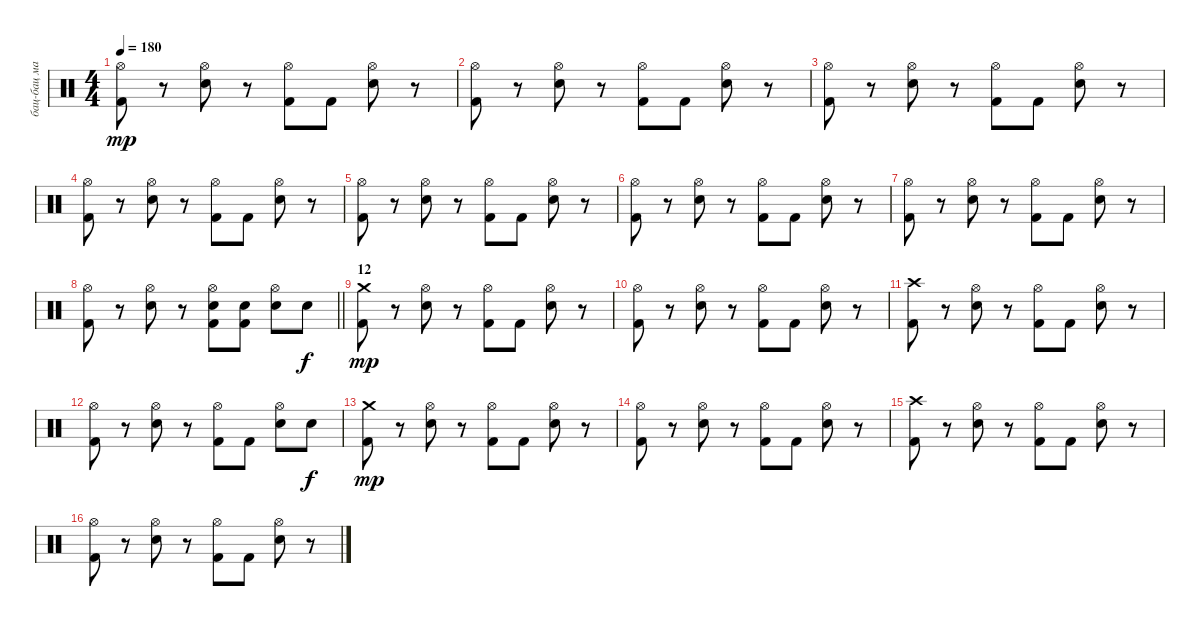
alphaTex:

\track ("бац-бац машина" "бац-бац ма") {instrument percussion}
\staff {score}
\articulation defaults
\ts (4 4)
\tempo 180
\clef neutral
\ks c
("Hi-Hat (open)" "Kick (hit) 2").8{dy mp} r.8 ("Hi-Hat (open)" "Snare (hit) 2").8 r.8 ("Hi-Hat (open)" "Kick (hit) 2").8 "Kick (hit) 2".8 ("Hi-Hat (open)" "Snare (hit) 2").8 r.8 |
("Hi-Hat (open)" "Kick (hit) 2").8 r.8 ("Hi-Hat (open)" "Snare (hit) 2").8 r.8 ("Hi-Hat (open)" "Kick (hit) 2").8 "Kick (hit) 2".8 ("Hi-Hat (open)" "Snare (hit) 2").8 r.8 |
("Hi-Hat (open)" "Kick (hit) 2").8 r.8 ("Hi-Hat (open)" "Snare (hit) 2").8 r.8 ("Hi-Hat (open)" "Kick (hit) 2").8 "Kick (hit) 2".8 ("Hi-Hat (open)" "Snare (hit) 2").8 r.8 |
("Hi-Hat (open)" "Kick (hit) 2").8 r.8 ("Hi-Hat (open)" "Snare (hit) 2").8 r.8 ("Hi-Hat (open)" "Kick (hit) 2").8 "Kick (hit) 2".8 ("Hi-Hat (open)" "Snare (hit) 2").8 r.8 |
("Hi-Hat (open)" "Kick (hit) 2").8 r.8 ("Hi-Hat (open)" "Snare (hit) 2").8 r.8 ("Hi-Hat (open)" "Kick (hit) 2").8 "Kick (hit) 2".8 ("Hi-Hat (open)" "Snare (hit) 2").8 r.8 |
("Hi-Hat (open)" "Kick (hit) 2").8 r.8 ("Hi-Hat (open)" "Snare (hit) 2").8 r.8 ("Hi-Hat (open)" "Kick (hit) 2").8 "Kick (hit) 2".8 ("Hi-Hat (open)" "Snare (hit) 2").8 r.8 |
("Hi-Hat (open)" "Kick (hit) 2").8 r.8 ("Hi-Hat (open)" "Snare (hit) 2").8 r.8 ("Hi-Hat (open)" "Kick (hit) 2").8 "Kick (hit) 2".8 ("Hi-Hat (open)" "Snare (hit) 2").8 r.8 |
\barLineRight lightlight
("Hi-Hat (open)" "Kick (hit) 2").8 r.8 ("Hi-Hat (open)" "Snare (hit) 2").8 r.8 ("Hi-Hat (open)" "Snare (hit) 2" "Kick (hit) 2").8 ("Snare (hit) 2" "Kick (hit) 2").8 ("Hi-Hat (open)" "Snare (hit) 2").8 "Snare (hit) 2".8{dy f} |
\section ("" "12")
("Crash medium (hit)" "Kick (hit) 2").8{dy mp} r.8 ("Hi-Hat (open)" "Snare (hit) 2").8 r.8 ("Hi-Hat (open)" "Kick (hit) 2").8 "Kick (hit) 2".8 ("Hi-Hat (open)" "Snare (hit) 2").8 r.8 |
("Hi-Hat (open)" "Kick (hit) 2").8 r.8 ("Hi-Hat (open)" "Snare (hit) 2").8 r.8 ("Hi-Hat (open)" "Kick (hit) 2").8 "Kick (hit) 2".8 ("Hi-Hat (open)" "Snare (hit) 2").8 r.8 |
("Crash high (hit)" "Kick (hit) 2").8 r.8 ("Hi-Hat (open)" "Snare (hit) 2").8 r.8 ("Hi-Hat (open)" "Kick (hit) 2").8 "Kick (hit) 2".8 ("Hi-Hat (open)" "Snare (hit) 2").8 r.8 |
("Hi-Hat (open)" "Kick (hit) 2").8 r.8 ("Hi-Hat (open)" "Snare (hit) 2").8 r.8 ("Hi-Hat (open)" "Kick (hit) 2").8 "Kick (hit) 2".8 ("Hi-Hat (open)" "Snare (hit) 2").8 "Snare (hit) 2".8{dy f} |
("Crash medium (hit)" "Kick (hit) 2").8{dy mp} r.8 ("Hi-Hat (open)" "Snare (hit) 2").8 r.8 ("Hi-Hat (open)" "Kick (hit) 2").8 "Kick (hit) 2".8 ("Hi-Hat (open)" "Snare (hit) 2").8 r.8 |
("Hi-Hat (open)" "Kick (hit) 2").8 r.8 ("Hi-Hat (open)" "Snare (hit) 2").8 r.8 ("Hi-Hat (open)" "Kick (hit) 2").8 "Kick (hit) 2".8 ("Hi-Hat (open)" "Snare (hit) 2").8 r.8 |
("Crash high (hit)" "Kick (hit) 2").8 r.8 ("Hi-Hat (open)" "Snare (hit) 2").8 r.8 ("Hi-Hat (open)" "Kick (hit) 2").8 "Kick (hit) 2".8 ("Hi-Hat (open)" "Snare (hit) 2").8 r.8 |
("Hi-Hat (open)" "Kick (hit) 2").8 r.8 ("Hi-Hat (open)" "Snare (hit) 2").8 r.8 ("Hi-Hat (open)" "Kick (hit) 2").8 "Kick (hit) 2".8 ("Hi-Hat (open)" "Snare (hit) 2").8 r.8
